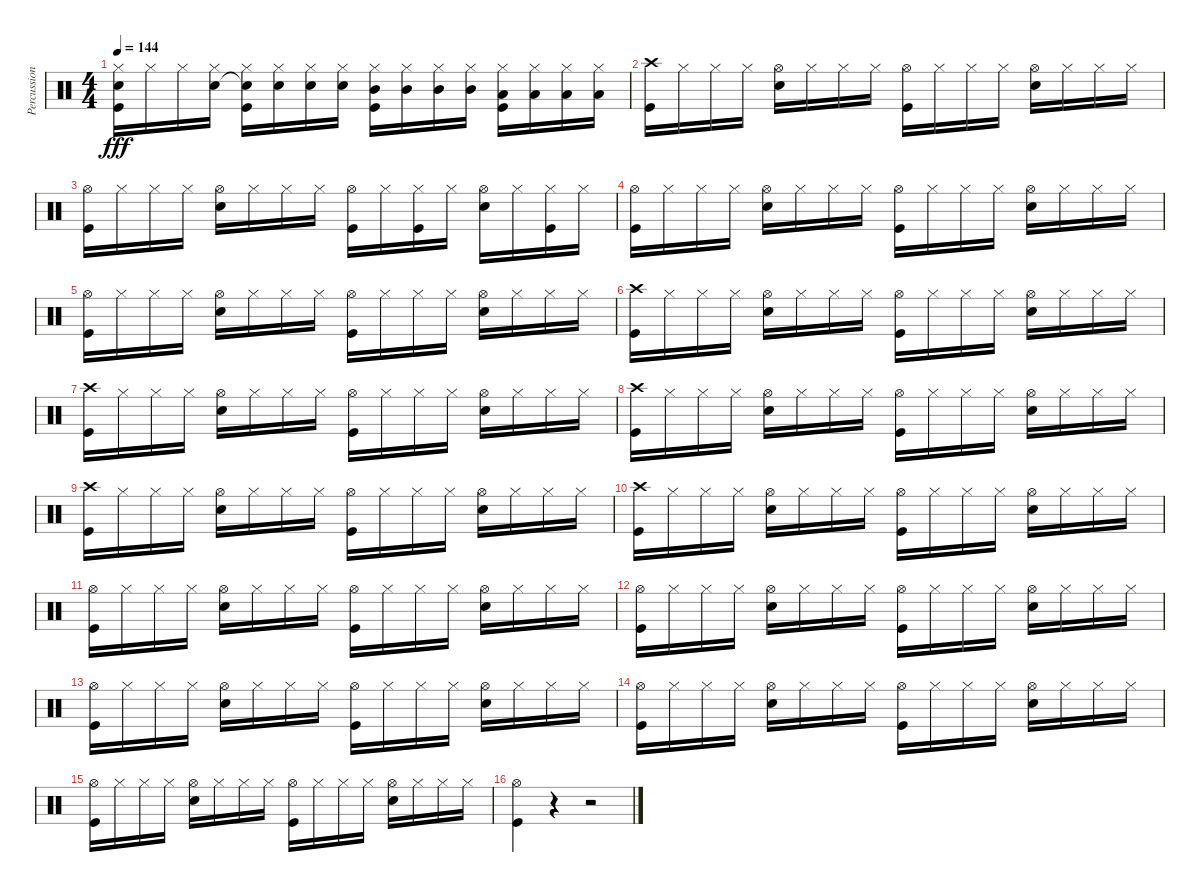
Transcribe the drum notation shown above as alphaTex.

\track ("Percussions" "Percussion") {instrument percussion}
\staff {score}
\articulation defaults
\ts (4 4)
\tempo 144
\clef neutral
\ks c
("Hi-Hat (closed)" "Snare (hit) 2" "Kick (hit)").16{dy fff} "Hi-Hat (closed)".16 "Hi-Hat (closed)".16 ("Hi-Hat (closed)" "Snare (hit) 2").16 ("Hi-Hat (closed)" "Snare (hit) 2"{t} "Kick (hit)").16 ("Hi-Hat (closed)" "Snare (hit) 2").16 ("Hi-Hat (closed)" "Snare (hit) 2").16 ("Hi-Hat (closed)" "Snare (hit) 2").16 ("Hi-Hat (closed)" "Mid Tom (hit)" "Kick (hit)").16 ("Hi-Hat (closed)" "Mid Tom (hit)").16 ("Hi-Hat (closed)" "Mid Tom (hit)").16 ("Hi-Hat (closed)" "Mid Tom (hit)").16 ("Hi-Hat (closed)" "Low Tom (hit)" "Kick (hit)").16 ("Hi-Hat (closed)" "Low Tom (hit)").16 ("Hi-Hat (closed)" "Low Tom (hit)").16 ("Hi-Hat (closed)" "Low Tom (hit)").16 |
("Crash high (hit)" "Kick (hit)").16 "Hi-Hat (closed)".16 "Hi-Hat (closed)".16 "Hi-Hat (closed)".16 ("Hi-Hat (open)" "Snare (hit) 2").16 "Hi-Hat (closed)".16 "Hi-Hat (closed)".16 "Hi-Hat (closed)".16 ("Hi-Hat (open)" "Kick (hit)").16 "Hi-Hat (closed)".16 "Hi-Hat (closed)".16 "Hi-Hat (closed)".16 ("Hi-Hat (open)" "Snare (hit) 2").16 "Hi-Hat (closed)".16 "Hi-Hat (closed)".16 "Hi-Hat (closed)".16 |
("Hi-Hat (open)" "Kick (hit)").16 "Hi-Hat (closed)".16 "Hi-Hat (closed)".16 "Hi-Hat (closed)".16 ("Hi-Hat (open)" "Snare (hit) 2").16 "Hi-Hat (closed)".16 "Hi-Hat (closed)".16 "Hi-Hat (closed)".16 ("Hi-Hat (open)" "Kick (hit)").16 "Hi-Hat (closed)".16 ("Hi-Hat (closed)" "Kick (hit)").16 "Hi-Hat (closed)".16 ("Hi-Hat (open)" "Snare (hit) 2").16 "Hi-Hat (closed)".16 ("Hi-Hat (closed)" "Kick (hit)").16 "Hi-Hat (closed)".16 |
("Hi-Hat (open)" "Kick (hit)").16 "Hi-Hat (closed)".16 "Hi-Hat (closed)".16 "Hi-Hat (closed)".16 ("Hi-Hat (open)" "Snare (hit) 2").16 "Hi-Hat (closed)".16 "Hi-Hat (closed)".16 "Hi-Hat (closed)".16 ("Hi-Hat (open)" "Kick (hit)").16 "Hi-Hat (closed)".16 "Hi-Hat (closed)".16 "Hi-Hat (closed)".16 ("Hi-Hat (open)" "Snare (hit) 2").16 "Hi-Hat (closed)".16 "Hi-Hat (closed)".16 "Hi-Hat (closed)".16 |
("Hi-Hat (open)" "Kick (hit)").16 "Hi-Hat (closed)".16 "Hi-Hat (closed)".16 "Hi-Hat (closed)".16 ("Hi-Hat (open)" "Snare (hit) 2").16 "Hi-Hat (closed)".16 "Hi-Hat (closed)".16 "Hi-Hat (closed)".16 ("Hi-Hat (open)" "Kick (hit)").16 "Hi-Hat (closed)".16 "Hi-Hat (closed)".16 "Hi-Hat (closed)".16 ("Hi-Hat (open)" "Snare (hit) 2").16 "Hi-Hat (closed)".16 "Hi-Hat (closed)".16 "Hi-Hat (closed)".16 |
("Crash high (hit)" "Kick (hit)").16 "Hi-Hat (closed)".16 "Hi-Hat (closed)".16 "Hi-Hat (closed)".16 ("Hi-Hat (open)" "Snare (hit) 2").16 "Hi-Hat (closed)".16 "Hi-Hat (closed)".16 "Hi-Hat (closed)".16 ("Hi-Hat (open)" "Kick (hit)").16 "Hi-Hat (closed)".16 "Hi-Hat (closed)".16 "Hi-Hat (closed)".16 ("Hi-Hat (open)" "Snare (hit) 2").16 "Hi-Hat (closed)".16 "Hi-Hat (closed)".16 "Hi-Hat (closed)".16 |
("Crash high (hit)" "Kick (hit)").16 "Hi-Hat (closed)".16 "Hi-Hat (closed)".16 "Hi-Hat (closed)".16 ("Hi-Hat (open)" "Snare (hit) 2").16 "Hi-Hat (closed)".16 "Hi-Hat (closed)".16 "Hi-Hat (closed)".16 ("Hi-Hat (open)" "Kick (hit)").16 "Hi-Hat (closed)".16 "Hi-Hat (closed)".16 "Hi-Hat (closed)".16 ("Hi-Hat (open)" "Snare (hit) 2").16 "Hi-Hat (closed)".16 "Hi-Hat (closed)".16 "Hi-Hat (closed)".16 |
("Crash high (hit)" "Kick (hit)").16 "Hi-Hat (closed)".16 "Hi-Hat (closed)".16 "Hi-Hat (closed)".16 ("Hi-Hat (open)" "Snare (hit) 2").16 "Hi-Hat (closed)".16 "Hi-Hat (closed)".16 "Hi-Hat (closed)".16 ("Hi-Hat (open)" "Kick (hit)").16 "Hi-Hat (closed)".16 "Hi-Hat (closed)".16 "Hi-Hat (closed)".16 ("Hi-Hat (open)" "Snare (hit) 2").16 "Hi-Hat (closed)".16 "Hi-Hat (closed)".16 "Hi-Hat (closed)".16 |
("Crash high (hit)" "Kick (hit)").16 "Hi-Hat (closed)".16 "Hi-Hat (closed)".16 "Hi-Hat (closed)".16 ("Hi-Hat (open)" "Snare (hit) 2").16 "Hi-Hat (closed)".16 "Hi-Hat (closed)".16 "Hi-Hat (closed)".16 ("Hi-Hat (open)" "Kick (hit)").16 "Hi-Hat (closed)".16 "Hi-Hat (closed)".16 "Hi-Hat (closed)".16 ("Hi-Hat (open)" "Snare (hit) 2").16 "Hi-Hat (closed)".16 "Hi-Hat (closed)".16 "Hi-Hat (closed)".16 |
("Crash high (hit)" "Kick (hit)").16 "Hi-Hat (closed)".16 "Hi-Hat (closed)".16 "Hi-Hat (closed)".16 ("Hi-Hat (open)" "Snare (hit) 2").16 "Hi-Hat (closed)".16 "Hi-Hat (closed)".16 "Hi-Hat (closed)".16 ("Hi-Hat (open)" "Kick (hit)").16 "Hi-Hat (closed)".16 "Hi-Hat (closed)".16 "Hi-Hat (closed)".16 ("Hi-Hat (open)" "Snare (hit) 2").16 "Hi-Hat (closed)".16 "Hi-Hat (closed)".16 "Hi-Hat (closed)".16 |
("Hi-Hat (open)" "Kick (hit)").16 "Hi-Hat (closed)".16 "Hi-Hat (closed)".16 "Hi-Hat (closed)".16 ("Hi-Hat (open)" "Snare (hit) 2").16 "Hi-Hat (closed)".16 "Hi-Hat (closed)".16 "Hi-Hat (closed)".16 ("Hi-Hat (open)" "Kick (hit)").16 "Hi-Hat (closed)".16 "Hi-Hat (closed)".16 "Hi-Hat (closed)".16 ("Hi-Hat (open)" "Snare (hit) 2").16 "Hi-Hat (closed)".16 "Hi-Hat (closed)".16 "Hi-Hat (closed)".16 |
("Hi-Hat (open)" "Kick (hit)").16 "Hi-Hat (closed)".16 "Hi-Hat (closed)".16 "Hi-Hat (closed)".16 ("Hi-Hat (open)" "Snare (hit) 2").16 "Hi-Hat (closed)".16 "Hi-Hat (closed)".16 "Hi-Hat (closed)".16 ("Hi-Hat (open)" "Kick (hit)").16 "Hi-Hat (closed)".16 "Hi-Hat (closed)".16 "Hi-Hat (closed)".16 ("Hi-Hat (open)" "Snare (hit) 2").16 "Hi-Hat (closed)".16 "Hi-Hat (closed)".16 "Hi-Hat (closed)".16 |
("Hi-Hat (open)" "Kick (hit)").16 "Hi-Hat (closed)".16 "Hi-Hat (closed)".16 "Hi-Hat (closed)".16 ("Hi-Hat (open)" "Snare (hit) 2").16 "Hi-Hat (closed)".16 "Hi-Hat (closed)".16 "Hi-Hat (closed)".16 ("Hi-Hat (open)" "Kick (hit)").16 "Hi-Hat (closed)".16 "Hi-Hat (closed)".16 "Hi-Hat (closed)".16 ("Hi-Hat (open)" "Snare (hit) 2").16 "Hi-Hat (closed)".16 "Hi-Hat (closed)".16 "Hi-Hat (closed)".16 |
("Hi-Hat (open)" "Kick (hit)").16 "Hi-Hat (closed)".16 "Hi-Hat (closed)".16 "Hi-Hat (closed)".16 ("Hi-Hat (open)" "Snare (hit) 2").16 "Hi-Hat (closed)".16 "Hi-Hat (closed)".16 "Hi-Hat (closed)".16 ("Hi-Hat (open)" "Kick (hit)").16 "Hi-Hat (closed)".16 "Hi-Hat (closed)".16 "Hi-Hat (closed)".16 ("Hi-Hat (open)" "Snare (hit) 2").16 "Hi-Hat (closed)".16 "Hi-Hat (closed)".16 "Hi-Hat (closed)".16 |
("Hi-Hat (open)" "Kick (hit)").16 "Hi-Hat (closed)".16 "Hi-Hat (closed)".16 "Hi-Hat (closed)".16 ("Hi-Hat (open)" "Snare (hit) 2").16 "Hi-Hat (closed)".16 "Hi-Hat (closed)".16 "Hi-Hat (closed)".16 ("Hi-Hat (open)" "Kick (hit)").16 "Hi-Hat (closed)".16 "Hi-Hat (closed)".16 "Hi-Hat (closed)".16 ("Hi-Hat (open)" "Snare (hit) 2").16 "Hi-Hat (closed)".16 "Hi-Hat (closed)".16 "Hi-Hat (closed)".16 |
("Hi-Hat (open)" "Kick (hit)").4 r.4 r.2
